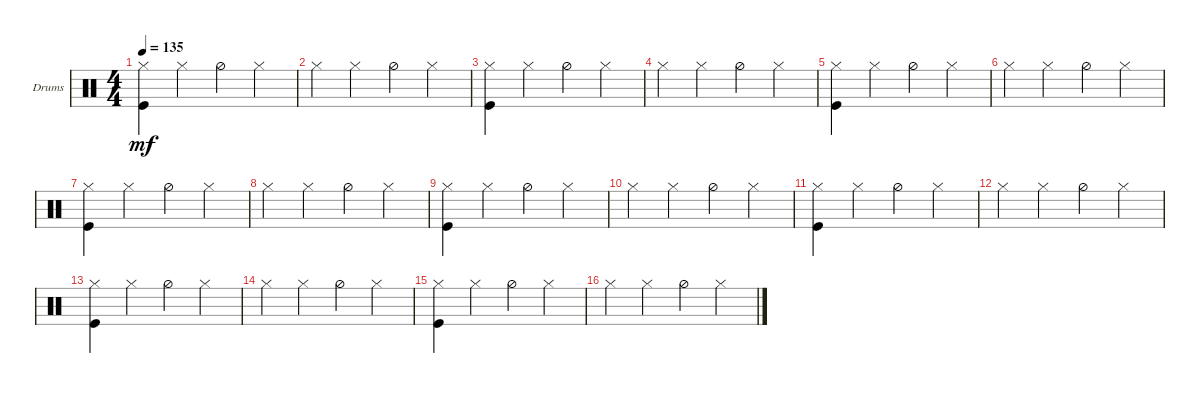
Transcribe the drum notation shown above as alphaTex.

\defaultSystemsLayout 4
\bracketExtendMode groupsimilarinstruments
\firstSystemTrackNameOrientation horizontal
\otherSystemsTrackNameOrientation horizontal
\track ("Drumkit" "Drums") {instrument percussion}
\staff {score}
\articulation defaults
\ts (4 4)
\tempo 135
\clef neutral
\ks c
("Hi-Hat (closed)" "Kick (hit)").4{dy mf} "Hi-Hat (closed)".4 "Hi-Hat (half)".4 "Hi-Hat (closed)".4 |
"Hi-Hat (closed)".4 "Hi-Hat (closed)".4 "Hi-Hat (half)".4 "Hi-Hat (closed)".4 |
("Hi-Hat (closed)" "Kick (hit)").4 "Hi-Hat (closed)".4 "Hi-Hat (half)".4 "Hi-Hat (closed)".4 |
"Hi-Hat (closed)".4 "Hi-Hat (closed)".4 "Hi-Hat (half)".4 "Hi-Hat (closed)".4 |
("Hi-Hat (closed)" "Kick (hit)").4 "Hi-Hat (closed)".4 "Hi-Hat (half)".4 "Hi-Hat (closed)".4 |
"Hi-Hat (closed)".4 "Hi-Hat (closed)".4 "Hi-Hat (half)".4 "Hi-Hat (closed)".4 |
("Hi-Hat (closed)" "Kick (hit)").4 "Hi-Hat (closed)".4 "Hi-Hat (half)".4 "Hi-Hat (closed)".4 |
"Hi-Hat (closed)".4 "Hi-Hat (closed)".4 "Hi-Hat (half)".4 "Hi-Hat (closed)".4 |
("Hi-Hat (closed)" "Kick (hit)").4 "Hi-Hat (closed)".4 "Hi-Hat (half)".4 "Hi-Hat (closed)".4 |
"Hi-Hat (closed)".4 "Hi-Hat (closed)".4 "Hi-Hat (half)".4 "Hi-Hat (closed)".4 |
("Hi-Hat (closed)" "Kick (hit)").4 "Hi-Hat (closed)".4 "Hi-Hat (half)".4 "Hi-Hat (closed)".4 |
"Hi-Hat (closed)".4 "Hi-Hat (closed)".4 "Hi-Hat (half)".4 "Hi-Hat (closed)".4 |
("Hi-Hat (closed)" "Kick (hit)").4 "Hi-Hat (closed)".4 "Hi-Hat (half)".4 "Hi-Hat (closed)".4 |
"Hi-Hat (closed)".4 "Hi-Hat (closed)".4 "Hi-Hat (half)".4 "Hi-Hat (closed)".4 |
("Hi-Hat (closed)" "Kick (hit)").4 "Hi-Hat (closed)".4 "Hi-Hat (half)".4 "Hi-Hat (closed)".4 |
"Hi-Hat (closed)".4 "Hi-Hat (closed)".4 "Hi-Hat (half)".4 "Hi-Hat (closed)".4
